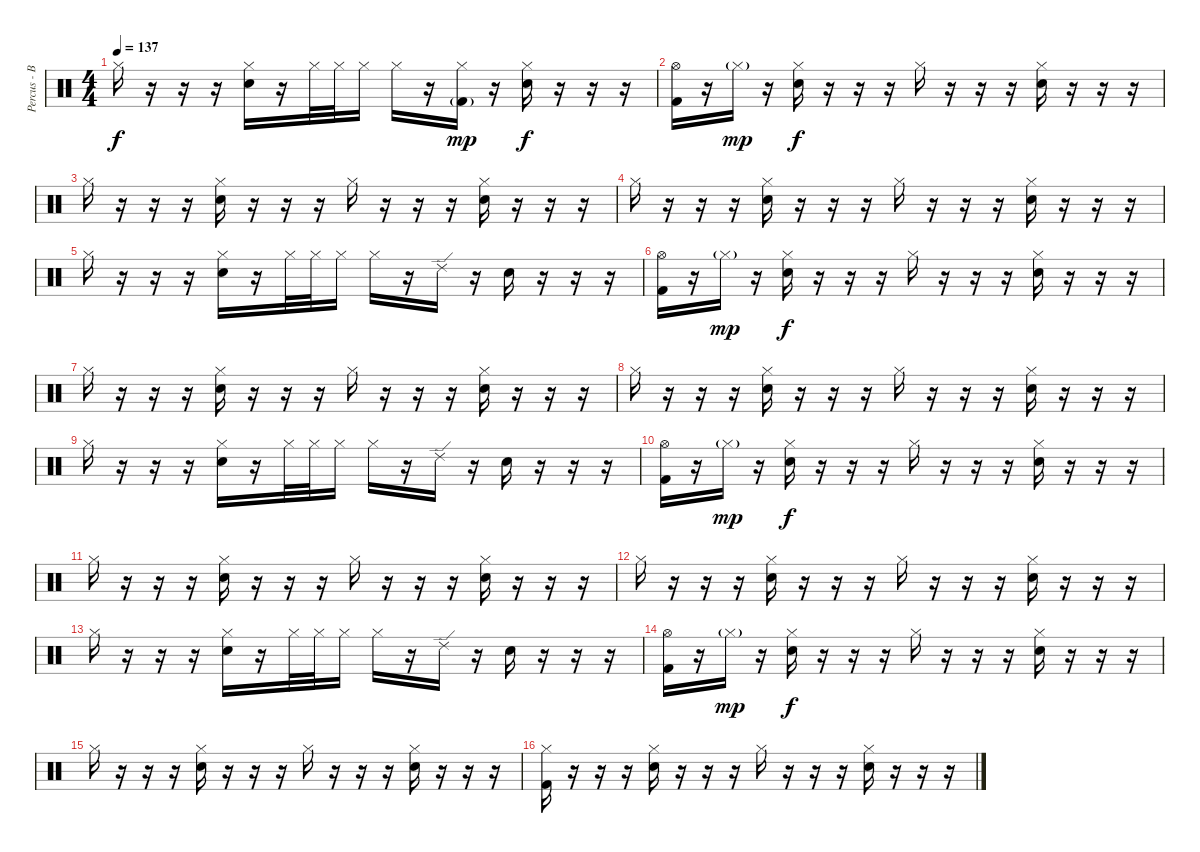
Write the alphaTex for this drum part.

\track ("Percus - Brice" "Percus - B") {instrument percussion}
\staff {score}
\articulation defaults
\ts (4 4)
\tempo 137
\clef neutral
\ks c "Hi-Hat (closed)".16{dy f}
r.16 r.16 r.16 ("Hi-Hat (closed)" "Electric Snare (hit)").16 r.16 "Hi-Hat (closed)".32 "Hi-Hat (closed)".32 "Hi-Hat (closed)".16 "Hi-Hat (closed)".16 r.16 ("Hi-Hat (closed)" "Kick (hit) 2"{g}).16{dy mp} r.16 ("Hi-Hat (closed)" "Electric Snare (hit)").16{dy f} r.16 r.16 r.16 |
("Hi-Hat (open)" "Kick (hit) 2").16 r.16 "Hi-Hat (closed)"{g}.16{dy mp} r.16 ("Hi-Hat (closed)" "Electric Snare (hit)").16{dy f} r.16 r.16 r.16 "Hi-Hat (closed)".16 r.16 r.16 r.16 ("Hi-Hat (closed)" "Electric Snare (hit)").16 r.16 r.16 r.16 |
"Hi-Hat (closed)".16 r.16 r.16 r.16 ("Hi-Hat (closed)" "Electric Snare (hit)").16 r.16 r.16 r.16 "Hi-Hat (closed)".16 r.16 r.16 r.16 ("Hi-Hat (closed)" "Electric Snare (hit)").16 r.16 r.16 r.16 |
"Hi-Hat (closed)".16 r.16 r.16 r.16 ("Hi-Hat (closed)" "Electric Snare (hit)").16 r.16 r.16 r.16 "Hi-Hat (closed)".16 r.16 r.16 r.16 ("Hi-Hat (closed)" "Electric Snare (hit)").16 r.16 r.16 r.16 |
"Hi-Hat (closed)".16 r.16 r.16 r.16 ("Hi-Hat (closed)" "Electric Snare (hit)").16 r.16 "Hi-Hat (closed)".32 "Hi-Hat (closed)".32 "Hi-Hat (closed)".16 "Hi-Hat (closed)".16 r.16 "Ride (edge) 2".16 r.16 "Electric Snare (hit)".16 r.16 r.16 r.16 |
("Hi-Hat (open)" "Kick (hit) 2").16 r.16 "Hi-Hat (closed)"{g}.16{dy mp} r.16 ("Hi-Hat (closed)" "Electric Snare (hit)").16{dy f} r.16 r.16 r.16 "Hi-Hat (closed)".16 r.16 r.16 r.16 ("Hi-Hat (closed)" "Electric Snare (hit)").16 r.16 r.16 r.16 |
"Hi-Hat (closed)".16 r.16 r.16 r.16 ("Hi-Hat (closed)" "Electric Snare (hit)").16 r.16 r.16 r.16 "Hi-Hat (closed)".16 r.16 r.16 r.16 ("Hi-Hat (closed)" "Electric Snare (hit)").16 r.16 r.16 r.16 |
"Hi-Hat (closed)".16 r.16 r.16 r.16 ("Hi-Hat (closed)" "Electric Snare (hit)").16 r.16 r.16 r.16 "Hi-Hat (closed)".16 r.16 r.16 r.16 ("Hi-Hat (closed)" "Electric Snare (hit)").16 r.16 r.16 r.16 |
"Hi-Hat (closed)".16 r.16 r.16 r.16 ("Hi-Hat (closed)" "Electric Snare (hit)").16 r.16 "Hi-Hat (closed)".32 "Hi-Hat (closed)".32 "Hi-Hat (closed)".16 "Hi-Hat (closed)".16 r.16 "Ride (edge) 2".16 r.16 "Electric Snare (hit)".16 r.16 r.16 r.16 |
("Hi-Hat (open)" "Kick (hit) 2").16 r.16 "Hi-Hat (closed)"{g}.16{dy mp} r.16 ("Hi-Hat (closed)" "Electric Snare (hit)").16{dy f} r.16 r.16 r.16 "Hi-Hat (closed)".16 r.16 r.16 r.16 ("Hi-Hat (closed)" "Electric Snare (hit)").16 r.16 r.16 r.16 |
"Hi-Hat (closed)".16 r.16 r.16 r.16 ("Hi-Hat (closed)" "Electric Snare (hit)").16 r.16 r.16 r.16 "Hi-Hat (closed)".16 r.16 r.16 r.16 ("Hi-Hat (closed)" "Electric Snare (hit)").16 r.16 r.16 r.16 |
"Hi-Hat (closed)".16 r.16 r.16 r.16 ("Hi-Hat (closed)" "Electric Snare (hit)").16 r.16 r.16 r.16 "Hi-Hat (closed)".16 r.16 r.16 r.16 ("Hi-Hat (closed)" "Electric Snare (hit)").16 r.16 r.16 r.16 |
"Hi-Hat (closed)".16 r.16 r.16 r.16 ("Hi-Hat (closed)" "Electric Snare (hit)").16 r.16 "Hi-Hat (closed)".32 "Hi-Hat (closed)".32 "Hi-Hat (closed)".16 "Hi-Hat (closed)".16 r.16 "Ride (edge) 2".16 r.16 "Electric Snare (hit)".16 r.16 r.16 r.16 |
("Hi-Hat (open)" "Kick (hit) 2").16 r.16 "Hi-Hat (closed)"{g}.16{dy mp} r.16 ("Hi-Hat (closed)" "Electric Snare (hit)").16{dy f} r.16 r.16 r.16 "Hi-Hat (closed)".16 r.16 r.16 r.16 ("Hi-Hat (closed)" "Electric Snare (hit)").16 r.16 r.16 r.16 |
"Hi-Hat (closed)".16 r.16 r.16 r.16 ("Hi-Hat (closed)" "Electric Snare (hit)").16 r.16 r.16 r.16 "Hi-Hat (closed)".16 r.16 r.16 r.16 ("Hi-Hat (closed)" "Electric Snare (hit)").16 r.16 r.16 r.16 |
("Hi-Hat (closed)" "Kick (hit) 2").16 r.16 r.16 r.16 ("Hi-Hat (closed)" "Electric Snare (hit)").16 r.16 r.16 r.16 "Hi-Hat (closed)".16 r.16 r.16 r.16 ("Hi-Hat (closed)" "Electric Snare (hit)").16 r.16 r.16 r.16
